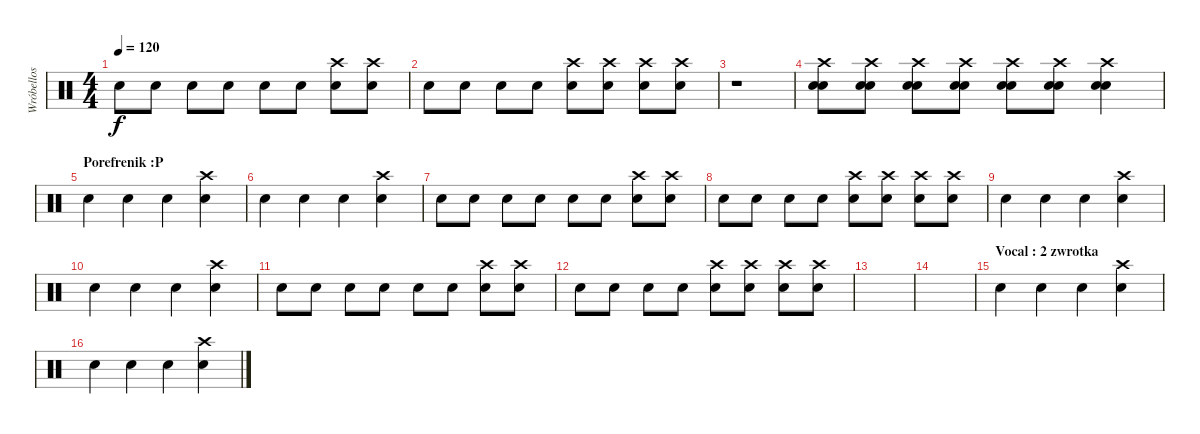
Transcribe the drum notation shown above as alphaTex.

\track ("Wróbellos " "Wróbellos ") {instrument percussion}
\staff {score}
\articulation defaults
\ts (4 4)
\tempo 120
\clef neutral
\ks c "Electric Snare (hit)".8{dy f} "Electric Snare (hit)".8 "Electric Snare (hit)".8 "Electric Snare (hit)".8 "Electric Snare (hit)".8 "Electric Snare (hit)".8
("Electric Snare (hit)" "Crash high (hit)").8 ("Electric Snare (hit)" "Crash high (hit)").8 |
"Electric Snare (hit)".8 "Electric Snare (hit)".8 "Electric Snare (hit)".8 "Electric Snare (hit)".8 ("Electric Snare (hit)" "Crash high (hit)").8 ("Electric Snare (hit)" "Crash high (hit)").8 ("Electric Snare (hit)" "Crash high (hit)").8 ("Electric Snare (hit)" "Crash high (hit)").8 |
r.1 |
("Electric Snare (hit)" "Snare (hit) 2" "Crash high (hit)").8 ("Electric Snare (hit)" "Snare (hit) 2" "Crash high (hit)").8 ("Electric Snare (hit)" "Snare (hit) 2" "Crash high (hit)").8 ("Electric Snare (hit)" "Snare (hit) 2" "Crash high (hit)").8 ("Electric Snare (hit)" "Snare (hit) 2" "Crash high (hit)").8 ("Electric Snare (hit)" "Snare (hit) 2" "Crash high (hit)").8 ("Electric Snare (hit)" "Snare (hit) 2" "Crash high (hit)").4 |
\section ("" "Porefrenik :P")
"Electric Snare (hit)".4 "Electric Snare (hit)".4 "Electric Snare (hit)".4 ("Electric Snare (hit)" "Crash high (hit)").4 |
"Electric Snare (hit)".4 "Electric Snare (hit)".4 "Electric Snare (hit)".4 ("Electric Snare (hit)" "Crash high (hit)").4 |
"Electric Snare (hit)".8 "Electric Snare (hit)".8 "Electric Snare (hit)".8 "Electric Snare (hit)".8 "Electric Snare (hit)".8 "Electric Snare (hit)".8 ("Electric Snare (hit)" "Crash high (hit)").8 ("Electric Snare (hit)" "Crash high (hit)").8 |
"Electric Snare (hit)".8 "Electric Snare (hit)".8 "Electric Snare (hit)".8 "Electric Snare (hit)".8 ("Electric Snare (hit)" "Crash high (hit)").8 ("Electric Snare (hit)" "Crash high (hit)").8 ("Electric Snare (hit)" "Crash high (hit)").8 ("Electric Snare (hit)" "Crash high (hit)").8 |
"Electric Snare (hit)".4 "Electric Snare (hit)".4 "Electric Snare (hit)".4 ("Electric Snare (hit)" "Crash high (hit)").4 |
"Electric Snare (hit)".4 "Electric Snare (hit)".4 "Electric Snare (hit)".4 ("Electric Snare (hit)" "Crash high (hit)").4 |
"Electric Snare (hit)".8 "Electric Snare (hit)".8 "Electric Snare (hit)".8 "Electric Snare (hit)".8 "Electric Snare (hit)".8 "Electric Snare (hit)".8 ("Electric Snare (hit)" "Crash high (hit)").8 ("Electric Snare (hit)" "Crash high (hit)").8 |
"Electric Snare (hit)".8 "Electric Snare (hit)".8 "Electric Snare (hit)".8 "Electric Snare (hit)".8 ("Electric Snare (hit)" "Crash high (hit)").8 ("Electric Snare (hit)" "Crash high (hit)").8 ("Electric Snare (hit)" "Crash high (hit)").8 ("Electric Snare (hit)" "Crash high (hit)").8 |
|
|
\section ("" "Vocal : 2 zwrotka")
"Electric Snare (hit)".4 "Electric Snare (hit)".4 "Electric Snare (hit)".4 ("Electric Snare (hit)" "Crash high (hit)").4 |
"Electric Snare (hit)".4 "Electric Snare (hit)".4 "Electric Snare (hit)".4 ("Electric Snare (hit)" "Crash high (hit)").4
